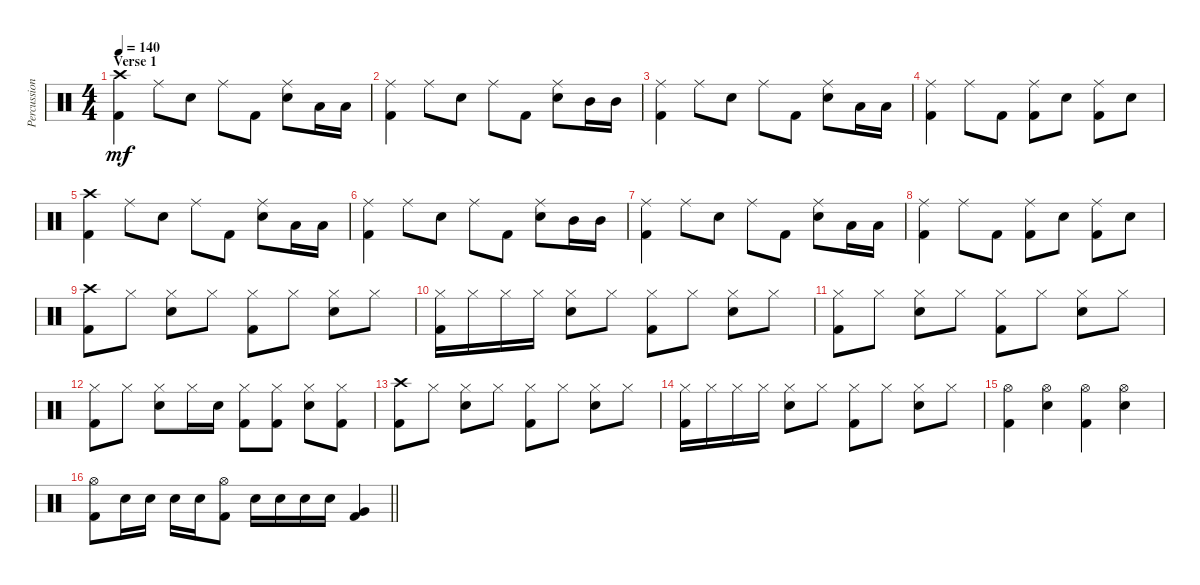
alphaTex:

\track ("Percussion" "Percussion") {instrument percussion}
\staff {score}
\articulation defaults
\ts (4 4)
\section ("" "Verse 1")
\tempo 140
\clef neutral
\ks c
("Crash high (hit)" "Kick (hit) 2").4{dy mf} "Ride (middle)".8 "Snare (hit) 2".8 "Ride (middle)".8 "Kick (hit) 2".8 ("Ride (middle)" "Snare (hit) 2").8 "Low Tom (hit)".16 "Low Tom (hit)".16 |
("Ride (middle)" "Kick (hit) 2").4 "Ride (middle)".8 "Snare (hit) 2".8 "Ride (middle)".8 "Kick (hit) 2".8 ("Ride (middle)" "Snare (hit) 2").8 "Mid Tom (hit)".16 "Mid Tom (hit)".16 |
("Ride (middle)" "Kick (hit) 2").4 "Ride (middle)".8 "Snare (hit) 2".8 "Ride (middle)".8 "Kick (hit) 2".8 ("Ride (middle)" "Snare (hit) 2").8 "Low Tom (hit)".16 "Low Tom (hit)".16 |
("Ride (middle)" "Kick (hit) 2").4 "Ride (middle)".8 "Kick (hit) 2".8 ("Ride (middle)" "Kick (hit) 2").8 "Snare (hit) 2".8 ("Ride (middle)" "Kick (hit) 2").8 "Snare (hit) 2".8 |
("Crash high (hit)" "Kick (hit) 2").4 "Ride (middle)".8 "Snare (hit) 2".8 "Ride (middle)".8 "Kick (hit) 2".8 ("Ride (middle)" "Snare (hit) 2").8 "Low Tom (hit)".16 "Low Tom (hit)".16 |
("Ride (middle)" "Kick (hit) 2").4 "Ride (middle)".8 "Snare (hit) 2".8 "Ride (middle)".8 "Kick (hit) 2".8 ("Ride (middle)" "Snare (hit) 2").8 "Mid Tom (hit)".16 "Mid Tom (hit)".16 |
("Ride (middle)" "Kick (hit) 2").4 "Ride (middle)".8 "Snare (hit) 2".8 "Ride (middle)".8 "Kick (hit) 2".8 ("Ride (middle)" "Snare (hit) 2").8 "Low Tom (hit)".16 "Low Tom (hit)".16 |
("Ride (middle)" "Kick (hit) 2").4 "Ride (middle)".8 "Kick (hit) 2".8 ("Ride (middle)" "Kick (hit) 2").8 "Snare (hit) 2".8 ("Ride (middle)" "Kick (hit) 2").8 "Snare (hit) 2".8 |
("Crash high (hit)" "Kick (hit) 2").8 "Hi-Hat (closed)".8 ("Hi-Hat (closed)" "Snare (hit) 2").8 "Hi-Hat (closed)".8 ("Hi-Hat (closed)" "Kick (hit) 2").8 "Hi-Hat (closed)".8 ("Hi-Hat (closed)" "Snare (hit) 2").8 "Hi-Hat (closed)".8 |
("Hi-Hat (closed)" "Kick (hit) 2").16 "Hi-Hat (closed)".16 "Hi-Hat (closed)".16 "Hi-Hat (closed)".16 ("Hi-Hat (closed)" "Snare (hit) 2").8 "Hi-Hat (closed)".8 ("Hi-Hat (closed)" "Kick (hit) 2").8 "Hi-Hat (closed)".8 ("Hi-Hat (closed)" "Snare (hit) 2").8 "Hi-Hat (closed)".8 |
("Hi-Hat (closed)" "Kick (hit) 2").8 "Hi-Hat (closed)".8 ("Hi-Hat (closed)" "Snare (hit) 2").8 "Hi-Hat (closed)".8 ("Hi-Hat (closed)" "Kick (hit) 2").8 "Hi-Hat (closed)".8 ("Hi-Hat (closed)" "Snare (hit) 2").8 "Hi-Hat (closed)".8 |
("Hi-Hat (closed)" "Kick (hit) 2").8 "Hi-Hat (closed)".8 ("Hi-Hat (closed)" "Snare (hit) 2").8 "Hi-Hat (closed)".16 "Snare (hit) 2".16 ("Hi-Hat (closed)" "Kick (hit) 2").8 ("Hi-Hat (closed)" "Kick (hit) 2").8 ("Hi-Hat (closed)" "Snare (hit) 2").8 ("Hi-Hat (closed)" "Kick (hit) 2").8 |
("Crash high (hit)" "Kick (hit) 2").8 "Hi-Hat (closed)".8 ("Hi-Hat (closed)" "Snare (hit) 2").8 "Hi-Hat (closed)".8 ("Hi-Hat (closed)" "Kick (hit) 2").8 "Hi-Hat (closed)".8 ("Hi-Hat (closed)" "Snare (hit) 2").8 "Hi-Hat (closed)".8 |
("Hi-Hat (closed)" "Kick (hit) 2").16 "Hi-Hat (closed)".16 "Hi-Hat (closed)".16 "Hi-Hat (closed)".16 ("Hi-Hat (closed)" "Snare (hit) 2").8 "Hi-Hat (closed)".8 ("Hi-Hat (closed)" "Kick (hit) 2").8 "Hi-Hat (closed)".8 ("Hi-Hat (closed)" "Snare (hit) 2").8 "Hi-Hat (closed)".8 |
("Hi-Hat (open)" "Kick (hit) 2").4 ("Hi-Hat (open)" "Snare (hit) 2").4 ("Hi-Hat (open)" "Kick (hit) 2").4 ("Hi-Hat (open)" "Snare (hit) 2").4 |
\barLineRight lightlight
("Hi-Hat (open)" "Kick (hit) 2").8 "Snare (hit) 2".16 "Snare (hit) 2".16 "Snare (hit) 2".16 "Snare (hit) 2".16 ("Hi-Hat (open)" "Kick (hit) 2").8 "Snare (hit) 2".16 "Snare (hit) 2".16 "Snare (hit) 2".16 "Snare (hit) 2".16 ("Very Low Tom (hit)" "Kick (hit) 2").4
